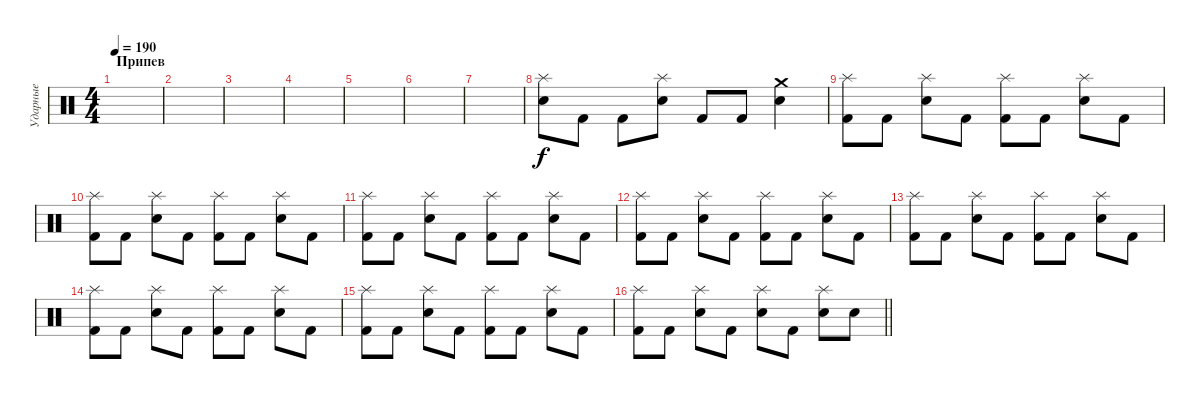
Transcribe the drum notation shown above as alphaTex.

\track ("Ударные" "Ударные") {instrument percussion}
\staff {score}
\articulation defaults
\ts (4 4)
\section ("" "Припев")
\tempo 190
\clef neutral
\ks c
|
|
|
|
|
|
|
("Splash (hit)" "Electric Snare (hit)").8 "Kick (hit) 2".8 "Kick (hit) 2".8 ("Splash (hit)" "Electric Snare (hit)").8 "Kick (hit) 2".8 "Kick (hit) 2".8 ("Crash medium (hit)" "Electric Snare (hit)").4 |
("Splash (hit)" "Kick (hit) 2").8 "Kick (hit) 2".8 ("Splash (hit)" "Electric Snare (hit)").8 "Kick (hit) 2".8 ("Splash (hit)" "Kick (hit) 2").8 "Kick (hit) 2".8 ("Splash (hit)" "Electric Snare (hit)").8 "Kick (hit) 2".8 |
("Splash (hit)" "Kick (hit) 2").8 "Kick (hit) 2".8 ("Splash (hit)" "Electric Snare (hit)").8 "Kick (hit) 2".8 ("Splash (hit)" "Kick (hit) 2").8 "Kick (hit) 2".8 ("Splash (hit)" "Electric Snare (hit)").8 "Kick (hit) 2".8 |
("Splash (hit)" "Kick (hit) 2").8 "Kick (hit) 2".8 ("Splash (hit)" "Electric Snare (hit)").8 "Kick (hit) 2".8 ("Splash (hit)" "Kick (hit) 2").8 "Kick (hit) 2".8 ("Splash (hit)" "Electric Snare (hit)").8 "Kick (hit) 2".8 |
("Splash (hit)" "Kick (hit) 2").8 "Kick (hit) 2".8 ("Splash (hit)" "Electric Snare (hit)").8 "Kick (hit) 2".8 ("Splash (hit)" "Kick (hit) 2").8 "Kick (hit) 2".8 ("Splash (hit)" "Electric Snare (hit)").8 "Kick (hit) 2".8 |
("Splash (hit)" "Kick (hit) 2").8 "Kick (hit) 2".8 ("Splash (hit)" "Electric Snare (hit)").8 "Kick (hit) 2".8 ("Splash (hit)" "Kick (hit) 2").8 "Kick (hit) 2".8 ("Splash (hit)" "Electric Snare (hit)").8 "Kick (hit) 2".8 |
("Splash (hit)" "Kick (hit) 2").8 "Kick (hit) 2".8 ("Splash (hit)" "Electric Snare (hit)").8 "Kick (hit) 2".8 ("Splash (hit)" "Kick (hit) 2").8 "Kick (hit) 2".8 ("Splash (hit)" "Electric Snare (hit)").8 "Kick (hit) 2".8 |
("Splash (hit)" "Kick (hit) 2").8 "Kick (hit) 2".8 ("Splash (hit)" "Electric Snare (hit)").8 "Kick (hit) 2".8 ("Splash (hit)" "Kick (hit) 2").8 "Kick (hit) 2".8 ("Splash (hit)" "Electric Snare (hit)").8 "Kick (hit) 2".8 |
\barLineRight lightlight
("Splash (hit)" "Kick (hit) 2").8 "Kick (hit) 2".8 ("Splash (hit)" "Electric Snare (hit)").8 "Kick (hit) 2".8 ("Splash (hit)" "Electric Snare (hit)").8 "Kick (hit) 2".8 ("Splash (hit)" "Electric Snare (hit)").8 "Electric Snare (hit)".8
